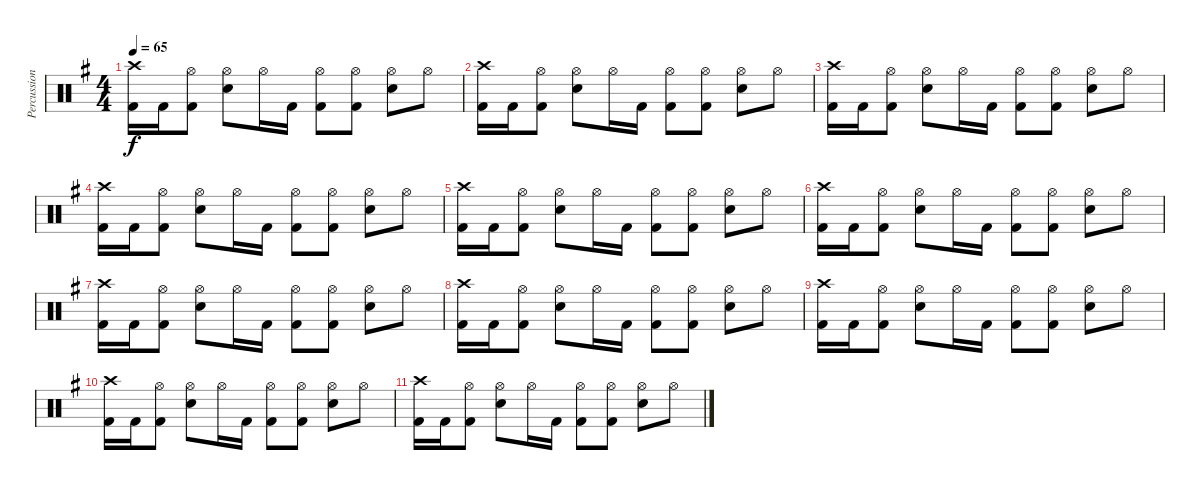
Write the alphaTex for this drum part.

\track ("Percussion" "Percussion") {instrument percussion}
\staff {score}
\articulation defaults
\ts (4 4)
\tempo 65
\clef neutral
\ks eminor
("Crash high (hit)" "Kick (hit) 2").16{dy f} "Kick (hit) 2".16 ("Hi-Hat (open)" "Kick (hit) 2").8 ("Hi-Hat (open)" "Snare (hit) 2").8 "Hi-Hat (open)".16 "Kick (hit) 2".16 ("Hi-Hat (open)" "Kick (hit) 2").8 ("Hi-Hat (open)" "Kick (hit) 2").8 ("Hi-Hat (open)" "Snare (hit) 2").8 "Hi-Hat (open)".8 |
("Crash high (hit)" "Kick (hit) 2").16 "Kick (hit) 2".16 ("Hi-Hat (open)" "Kick (hit) 2").8 ("Hi-Hat (open)" "Snare (hit) 2").8 "Hi-Hat (open)".16 "Kick (hit) 2".16 ("Hi-Hat (open)" "Kick (hit) 2").8 ("Hi-Hat (open)" "Kick (hit) 2").8 ("Hi-Hat (open)" "Snare (hit) 2").8 "Hi-Hat (open)".8 |
("Crash high (hit)" "Kick (hit) 2").16 "Kick (hit) 2".16 ("Hi-Hat (open)" "Kick (hit) 2").8 ("Hi-Hat (open)" "Snare (hit) 2").8 "Hi-Hat (open)".16 "Kick (hit) 2".16 ("Hi-Hat (open)" "Kick (hit) 2").8 ("Hi-Hat (open)" "Kick (hit) 2").8 ("Hi-Hat (open)" "Snare (hit) 2").8 "Hi-Hat (open)".8 |
("Crash high (hit)" "Kick (hit) 2").16 "Kick (hit) 2".16 ("Hi-Hat (open)" "Kick (hit) 2").8 ("Hi-Hat (open)" "Snare (hit) 2").8 "Hi-Hat (open)".16 "Kick (hit) 2".16 ("Hi-Hat (open)" "Kick (hit) 2").8 ("Hi-Hat (open)" "Kick (hit) 2").8 ("Hi-Hat (open)" "Snare (hit) 2").8 "Hi-Hat (open)".8 |
("Crash high (hit)" "Kick (hit) 2").16 "Kick (hit) 2".16 ("Hi-Hat (open)" "Kick (hit) 2").8 ("Hi-Hat (open)" "Snare (hit) 2").8 "Hi-Hat (open)".16 "Kick (hit) 2".16 ("Hi-Hat (open)" "Kick (hit) 2").8 ("Hi-Hat (open)" "Kick (hit) 2").8 ("Hi-Hat (open)" "Snare (hit) 2").8 "Hi-Hat (open)".8 |
("Crash high (hit)" "Kick (hit) 2").16 "Kick (hit) 2".16 ("Hi-Hat (open)" "Kick (hit) 2").8 ("Hi-Hat (open)" "Snare (hit) 2").8 "Hi-Hat (open)".16 "Kick (hit) 2".16 ("Hi-Hat (open)" "Kick (hit) 2").8 ("Hi-Hat (open)" "Kick (hit) 2").8 ("Hi-Hat (open)" "Snare (hit) 2").8 "Hi-Hat (open)".8 |
("Crash high (hit)" "Kick (hit) 2").16 "Kick (hit) 2".16 ("Hi-Hat (open)" "Kick (hit) 2").8 ("Hi-Hat (open)" "Snare (hit) 2").8 "Hi-Hat (open)".16 "Kick (hit) 2".16 ("Hi-Hat (open)" "Kick (hit) 2").8 ("Hi-Hat (open)" "Kick (hit) 2").8 ("Hi-Hat (open)" "Snare (hit) 2").8 "Hi-Hat (open)".8 |
("Crash high (hit)" "Kick (hit) 2").16 "Kick (hit) 2".16 ("Hi-Hat (open)" "Kick (hit) 2").8 ("Hi-Hat (open)" "Snare (hit) 2").8 "Hi-Hat (open)".16 "Kick (hit) 2".16 ("Hi-Hat (open)" "Kick (hit) 2").8 ("Hi-Hat (open)" "Kick (hit) 2").8 ("Hi-Hat (open)" "Snare (hit) 2").8 "Hi-Hat (open)".8 |
("Crash high (hit)" "Kick (hit) 2").16 "Kick (hit) 2".16 ("Hi-Hat (open)" "Kick (hit) 2").8 ("Hi-Hat (open)" "Snare (hit) 2").8 "Hi-Hat (open)".16 "Kick (hit) 2".16 ("Hi-Hat (open)" "Kick (hit) 2").8 ("Hi-Hat (open)" "Kick (hit) 2").8 ("Hi-Hat (open)" "Snare (hit) 2").8 "Hi-Hat (open)".8 |
("Crash high (hit)" "Kick (hit) 2").16 "Kick (hit) 2".16 ("Hi-Hat (open)" "Kick (hit) 2").8 ("Hi-Hat (open)" "Snare (hit) 2").8 "Hi-Hat (open)".16 "Kick (hit) 2".16 ("Hi-Hat (open)" "Kick (hit) 2").8 ("Hi-Hat (open)" "Kick (hit) 2").8 ("Hi-Hat (open)" "Snare (hit) 2").8 "Hi-Hat (open)".8 |
("Crash high (hit)" "Kick (hit) 2").16 "Kick (hit) 2".16 ("Hi-Hat (open)" "Kick (hit) 2").8 ("Hi-Hat (open)" "Snare (hit) 2").8 "Hi-Hat (open)".16 "Kick (hit) 2".16 ("Hi-Hat (open)" "Kick (hit) 2").8 ("Hi-Hat (open)" "Kick (hit) 2").8 ("Hi-Hat (open)" "Snare (hit) 2").8 "Hi-Hat (open)".8
